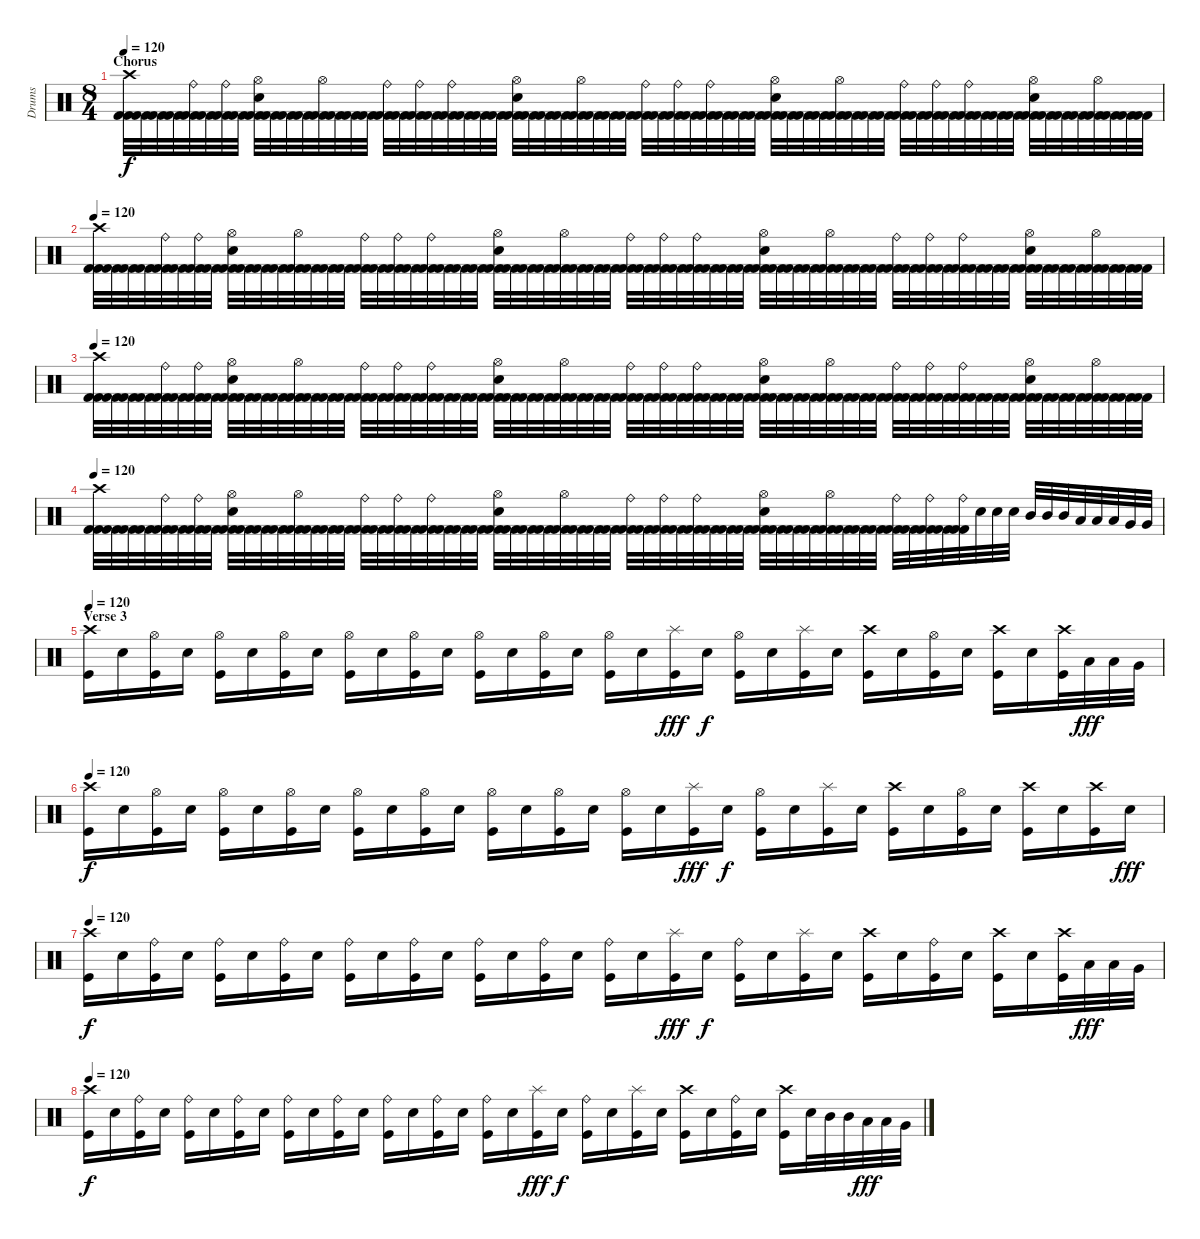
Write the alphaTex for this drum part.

\track ("Drums" "Drums") {instrument percussion}
\staff {score}
\articulation defaults
\ts (8 4)
\section ("" "Chorus ")
\tempo 120
\clef neutral
\ks c
("Crash high (hit)" "Kick (hit) 2" "Kick (hit) 2").32{dy f} ("Kick (hit) 2" "Kick (hit) 2").32 ("Kick (hit) 2" "Kick (hit) 2").32 ("Kick (hit) 2" "Kick (hit) 2").32 ("Ride (bell)" "Kick (hit) 2" "Kick (hit) 2").32 ("Kick (hit) 2" "Kick (hit) 2").32 ("Ride (bell)" "Kick (hit) 2" "Kick (hit) 2").32 ("Kick (hit) 2" "Kick (hit) 2").32 ("Hi-Hat (open)" "Electric Snare (hit)" "Kick (hit) 2" "Kick (hit) 2").32 ("Kick (hit) 2" "Kick (hit) 2").32 ("Kick (hit) 2" "Kick (hit) 2").32 ("Kick (hit) 2" "Kick (hit) 2").32 ("Hi-Hat (open)" "Kick (hit) 2" "Kick (hit) 2").32 ("Kick (hit) 2" "Kick (hit) 2").32 ("Kick (hit) 2" "Kick (hit) 2").32 ("Kick (hit) 2" "Kick (hit) 2").32 ("Ride (bell)" "Kick (hit) 2" "Kick (hit) 2").32 ("Kick (hit) 2" "Kick (hit) 2").32 ("Ride (bell)" "Kick (hit) 2" "Kick (hit) 2").32 ("Kick (hit) 2" "Kick (hit) 2").32 ("Ride (bell)" "Kick (hit) 2" "Kick (hit) 2").32 ("Kick (hit) 2" "Kick (hit) 2").32 ("Kick (hit) 2" "Kick (hit) 2").32 ("Kick (hit) 2" "Kick (hit) 2").32 ("Hi-Hat (open)" "Electric Snare (hit)" "Kick (hit) 2" "Kick (hit) 2").32 ("Kick (hit) 2" "Kick (hit) 2").32 ("Kick (hit) 2" "Kick (hit) 2").32 ("Kick (hit) 2" "Kick (hit) 2").32 ("Hi-Hat (open)" "Kick (hit) 2" "Kick (hit) 2").32 ("Kick (hit) 2" "Kick (hit) 2").32 ("Kick (hit) 2" "Kick (hit) 2").32 ("Kick (hit) 2" "Kick (hit) 2").32 ("Ride (bell)" "Kick (hit) 2" "Kick (hit) 2").32 ("Kick (hit) 2" "Kick (hit) 2").32 ("Ride (bell)" "Kick (hit) 2" "Kick (hit) 2").32 ("Kick (hit) 2" "Kick (hit) 2").32 ("Ride (bell)" "Kick (hit) 2" "Kick (hit) 2").32 ("Kick (hit) 2" "Kick (hit) 2").32 ("Kick (hit) 2" "Kick (hit) 2").32 ("Kick (hit) 2" "Kick (hit) 2").32 ("Hi-Hat (open)" "Electric Snare (hit)" "Kick (hit) 2" "Kick (hit) 2").32 ("Kick (hit) 2" "Kick (hit) 2").32 ("Kick (hit) 2" "Kick (hit) 2").32 ("Kick (hit) 2" "Kick (hit) 2").32 ("Hi-Hat (open)" "Kick (hit) 2" "Kick (hit) 2").32 ("Kick (hit) 2" "Kick (hit) 2").32 ("Kick (hit) 2" "Kick (hit) 2").32 ("Kick (hit) 2" "Kick (hit) 2").32 ("Ride (bell)" "Kick (hit) 2" "Kick (hit) 2").32 ("Kick (hit) 2" "Kick (hit) 2").32 ("Ride (bell)" "Kick (hit) 2" "Kick (hit) 2").32 ("Kick (hit) 2" "Kick (hit) 2").32 ("Ride (bell)" "Kick (hit) 2" "Kick (hit) 2").32 ("Kick (hit) 2" "Kick (hit) 2").32 ("Kick (hit) 2" "Kick (hit) 2").32 ("Kick (hit) 2" "Kick (hit) 2").32 ("Hi-Hat (open)" "Electric Snare (hit)" "Kick (hit) 2" "Kick (hit) 2").32 ("Kick (hit) 2" "Kick (hit) 2").32 ("Kick (hit) 2" "Kick (hit) 2").32 ("Kick (hit) 2" "Kick (hit) 2").32 ("Hi-Hat (open)" "Kick (hit) 2" "Kick (hit) 2").32 ("Kick (hit) 2" "Kick (hit) 2").32 ("Kick (hit) 2" "Kick (hit) 2").32 ("Kick (hit) 2" "Kick (hit) 2").32 |
\tempo 120
("Crash high (hit)" "Kick (hit) 2" "Kick (hit) 2").32 ("Kick (hit) 2" "Kick (hit) 2").32 ("Kick (hit) 2" "Kick (hit) 2").32 ("Kick (hit) 2" "Kick (hit) 2").32 ("Ride (bell)" "Kick (hit) 2" "Kick (hit) 2").32 ("Kick (hit) 2" "Kick (hit) 2").32 ("Ride (bell)" "Kick (hit) 2" "Kick (hit) 2").32 ("Kick (hit) 2" "Kick (hit) 2").32 ("Hi-Hat (open)" "Electric Snare (hit)" "Kick (hit) 2" "Kick (hit) 2").32 ("Kick (hit) 2" "Kick (hit) 2").32 ("Kick (hit) 2" "Kick (hit) 2").32 ("Kick (hit) 2" "Kick (hit) 2").32 ("Hi-Hat (open)" "Kick (hit) 2" "Kick (hit) 2").32 ("Kick (hit) 2" "Kick (hit) 2").32 ("Kick (hit) 2" "Kick (hit) 2").32 ("Kick (hit) 2" "Kick (hit) 2").32 ("Ride (bell)" "Kick (hit) 2" "Kick (hit) 2").32 ("Kick (hit) 2" "Kick (hit) 2").32 ("Ride (bell)" "Kick (hit) 2" "Kick (hit) 2").32 ("Kick (hit) 2" "Kick (hit) 2").32 ("Ride (bell)" "Kick (hit) 2" "Kick (hit) 2").32 ("Kick (hit) 2" "Kick (hit) 2").32 ("Kick (hit) 2" "Kick (hit) 2").32 ("Kick (hit) 2" "Kick (hit) 2").32 ("Hi-Hat (open)" "Electric Snare (hit)" "Kick (hit) 2" "Kick (hit) 2").32 ("Kick (hit) 2" "Kick (hit) 2").32 ("Kick (hit) 2" "Kick (hit) 2").32 ("Kick (hit) 2" "Kick (hit) 2").32 ("Hi-Hat (open)" "Kick (hit) 2" "Kick (hit) 2").32 ("Kick (hit) 2" "Kick (hit) 2").32 ("Kick (hit) 2" "Kick (hit) 2").32 ("Kick (hit) 2" "Kick (hit) 2").32 ("Ride (bell)" "Kick (hit) 2" "Kick (hit) 2").32 ("Kick (hit) 2" "Kick (hit) 2").32 ("Ride (bell)" "Kick (hit) 2" "Kick (hit) 2").32 ("Kick (hit) 2" "Kick (hit) 2").32 ("Ride (bell)" "Kick (hit) 2" "Kick (hit) 2").32 ("Kick (hit) 2" "Kick (hit) 2").32 ("Kick (hit) 2" "Kick (hit) 2").32 ("Kick (hit) 2" "Kick (hit) 2").32 ("Hi-Hat (open)" "Electric Snare (hit)" "Kick (hit) 2" "Kick (hit) 2").32 ("Kick (hit) 2" "Kick (hit) 2").32 ("Kick (hit) 2" "Kick (hit) 2").32 ("Kick (hit) 2" "Kick (hit) 2").32 ("Hi-Hat (open)" "Kick (hit) 2" "Kick (hit) 2").32 ("Kick (hit) 2" "Kick (hit) 2").32 ("Kick (hit) 2" "Kick (hit) 2").32 ("Kick (hit) 2" "Kick (hit) 2").32 ("Ride (bell)" "Kick (hit) 2" "Kick (hit) 2").32 ("Kick (hit) 2" "Kick (hit) 2").32 ("Ride (bell)" "Kick (hit) 2" "Kick (hit) 2").32 ("Kick (hit) 2" "Kick (hit) 2").32 ("Ride (bell)" "Kick (hit) 2" "Kick (hit) 2").32 ("Kick (hit) 2" "Kick (hit) 2").32 ("Kick (hit) 2" "Kick (hit) 2").32 ("Kick (hit) 2" "Kick (hit) 2").32 ("Hi-Hat (open)" "Electric Snare (hit)" "Kick (hit) 2" "Kick (hit) 2").32 ("Kick (hit) 2" "Kick (hit) 2").32 ("Kick (hit) 2" "Kick (hit) 2").32 ("Kick (hit) 2" "Kick (hit) 2").32 ("Hi-Hat (open)" "Kick (hit) 2" "Kick (hit) 2").32 ("Kick (hit) 2" "Kick (hit) 2").32 ("Kick (hit) 2" "Kick (hit) 2").32 ("Kick (hit) 2" "Kick (hit) 2").32 |
\tempo 120
("Crash high (hit)" "Kick (hit) 2" "Kick (hit) 2").32 ("Kick (hit) 2" "Kick (hit) 2").32 ("Kick (hit) 2" "Kick (hit) 2").32 ("Kick (hit) 2" "Kick (hit) 2").32 ("Ride (bell)" "Kick (hit) 2" "Kick (hit) 2").32 ("Kick (hit) 2" "Kick (hit) 2").32 ("Ride (bell)" "Kick (hit) 2" "Kick (hit) 2").32 ("Kick (hit) 2" "Kick (hit) 2").32 ("Hi-Hat (open)" "Electric Snare (hit)" "Kick (hit) 2" "Kick (hit) 2").32 ("Kick (hit) 2" "Kick (hit) 2").32 ("Kick (hit) 2" "Kick (hit) 2").32 ("Kick (hit) 2" "Kick (hit) 2").32 ("Hi-Hat (open)" "Kick (hit) 2" "Kick (hit) 2").32 ("Kick (hit) 2" "Kick (hit) 2").32 ("Kick (hit) 2" "Kick (hit) 2").32 ("Kick (hit) 2" "Kick (hit) 2").32 ("Ride (bell)" "Kick (hit) 2" "Kick (hit) 2").32 ("Kick (hit) 2" "Kick (hit) 2").32 ("Ride (bell)" "Kick (hit) 2" "Kick (hit) 2").32 ("Kick (hit) 2" "Kick (hit) 2").32 ("Ride (bell)" "Kick (hit) 2" "Kick (hit) 2").32 ("Kick (hit) 2" "Kick (hit) 2").32 ("Kick (hit) 2" "Kick (hit) 2").32 ("Kick (hit) 2" "Kick (hit) 2").32 ("Hi-Hat (open)" "Electric Snare (hit)" "Kick (hit) 2" "Kick (hit) 2").32 ("Kick (hit) 2" "Kick (hit) 2").32 ("Kick (hit) 2" "Kick (hit) 2").32 ("Kick (hit) 2" "Kick (hit) 2").32 ("Hi-Hat (open)" "Kick (hit) 2" "Kick (hit) 2").32 ("Kick (hit) 2" "Kick (hit) 2").32 ("Kick (hit) 2" "Kick (hit) 2").32 ("Kick (hit) 2" "Kick (hit) 2").32 ("Ride (bell)" "Kick (hit) 2" "Kick (hit) 2").32 ("Kick (hit) 2" "Kick (hit) 2").32 ("Ride (bell)" "Kick (hit) 2" "Kick (hit) 2").32 ("Kick (hit) 2" "Kick (hit) 2").32 ("Ride (bell)" "Kick (hit) 2" "Kick (hit) 2").32 ("Kick (hit) 2" "Kick (hit) 2").32 ("Kick (hit) 2" "Kick (hit) 2").32 ("Kick (hit) 2" "Kick (hit) 2").32 ("Hi-Hat (open)" "Electric Snare (hit)" "Kick (hit) 2" "Kick (hit) 2").32 ("Kick (hit) 2" "Kick (hit) 2").32 ("Kick (hit) 2" "Kick (hit) 2").32 ("Kick (hit) 2" "Kick (hit) 2").32 ("Hi-Hat (open)" "Kick (hit) 2" "Kick (hit) 2").32 ("Kick (hit) 2" "Kick (hit) 2").32 ("Kick (hit) 2" "Kick (hit) 2").32 ("Kick (hit) 2" "Kick (hit) 2").32 ("Ride (bell)" "Kick (hit) 2" "Kick (hit) 2").32 ("Kick (hit) 2" "Kick (hit) 2").32 ("Ride (bell)" "Kick (hit) 2" "Kick (hit) 2").32 ("Kick (hit) 2" "Kick (hit) 2").32 ("Ride (bell)" "Kick (hit) 2" "Kick (hit) 2").32 ("Kick (hit) 2" "Kick (hit) 2").32 ("Kick (hit) 2" "Kick (hit) 2").32 ("Kick (hit) 2" "Kick (hit) 2").32 ("Hi-Hat (open)" "Electric Snare (hit)" "Kick (hit) 2" "Kick (hit) 2").32 ("Kick (hit) 2" "Kick (hit) 2").32 ("Kick (hit) 2" "Kick (hit) 2").32 ("Kick (hit) 2" "Kick (hit) 2").32 ("Hi-Hat (open)" "Kick (hit) 2" "Kick (hit) 2").32 ("Kick (hit) 2" "Kick (hit) 2").32 ("Kick (hit) 2" "Kick (hit) 2").32 ("Kick (hit) 2" "Kick (hit) 2").32 |
\tempo 120
("Crash high (hit)" "Kick (hit) 2" "Kick (hit) 2").32 ("Kick (hit) 2" "Kick (hit) 2").32 ("Kick (hit) 2" "Kick (hit) 2").32 ("Kick (hit) 2" "Kick (hit) 2").32 ("Ride (bell)" "Kick (hit) 2" "Kick (hit) 2").32 ("Kick (hit) 2" "Kick (hit) 2").32 ("Ride (bell)" "Kick (hit) 2" "Kick (hit) 2").32 ("Kick (hit) 2" "Kick (hit) 2").32 ("Hi-Hat (open)" "Electric Snare (hit)" "Kick (hit) 2" "Kick (hit) 2").32 ("Kick (hit) 2" "Kick (hit) 2").32 ("Kick (hit) 2" "Kick (hit) 2").32 ("Kick (hit) 2" "Kick (hit) 2").32 ("Hi-Hat (open)" "Kick (hit) 2" "Kick (hit) 2").32 ("Kick (hit) 2" "Kick (hit) 2").32 ("Kick (hit) 2" "Kick (hit) 2").32 ("Kick (hit) 2" "Kick (hit) 2").32 ("Ride (bell)" "Kick (hit) 2" "Kick (hit) 2").32 ("Kick (hit) 2" "Kick (hit) 2").32 ("Ride (bell)" "Kick (hit) 2" "Kick (hit) 2").32 ("Kick (hit) 2" "Kick (hit) 2").32 ("Ride (bell)" "Kick (hit) 2" "Kick (hit) 2").32 ("Kick (hit) 2" "Kick (hit) 2").32 ("Kick (hit) 2" "Kick (hit) 2").32 ("Kick (hit) 2" "Kick (hit) 2").32 ("Hi-Hat (open)" "Electric Snare (hit)" "Kick (hit) 2" "Kick (hit) 2").32 ("Kick (hit) 2" "Kick (hit) 2").32 ("Kick (hit) 2" "Kick (hit) 2").32 ("Kick (hit) 2" "Kick (hit) 2").32 ("Hi-Hat (open)" "Kick (hit) 2" "Kick (hit) 2").32 ("Kick (hit) 2" "Kick (hit) 2").32 ("Kick (hit) 2" "Kick (hit) 2").32 ("Kick (hit) 2" "Kick (hit) 2").32 ("Ride (bell)" "Kick (hit) 2" "Kick (hit) 2").32 ("Kick (hit) 2" "Kick (hit) 2").32 ("Ride (bell)" "Kick (hit) 2" "Kick (hit) 2").32 ("Kick (hit) 2" "Kick (hit) 2").32 ("Ride (bell)" "Kick (hit) 2" "Kick (hit) 2").32 ("Kick (hit) 2" "Kick (hit) 2").32 ("Kick (hit) 2" "Kick (hit) 2").32 ("Kick (hit) 2" "Kick (hit) 2").32 ("Hi-Hat (open)" "Electric Snare (hit)" "Kick (hit) 2" "Kick (hit) 2").32 ("Kick (hit) 2" "Kick (hit) 2").32 ("Kick (hit) 2" "Kick (hit) 2").32 ("Kick (hit) 2" "Kick (hit) 2").32 ("Hi-Hat (open)" "Kick (hit) 2" "Kick (hit) 2").32 ("Kick (hit) 2" "Kick (hit) 2").32 ("Kick (hit) 2" "Kick (hit) 2").32 ("Kick (hit) 2" "Kick (hit) 2").32 ("Ride (bell)" "Kick (hit) 2" "Kick (hit) 2").32 ("Kick (hit) 2" "Kick (hit) 2").32 ("Ride (bell)" "Kick (hit) 2" "Kick (hit) 2").32 ("Kick (hit) 2" "Kick (hit) 2").32 ("Ride (bell)" "Kick (hit) 2" "Kick (hit) 2").32 "Electric Snare (hit)".32 "Electric Snare (hit)".32 "Electric Snare (hit)".32 "Mid Tom (hit)".32 "Mid Tom (hit)".32 "Mid Tom (hit)".32 "Low Tom (hit)".32 "Low Tom (hit)".32 "Low Tom (hit)".32 "Very Low Tom (hit)".32 "Very Low Tom (hit)".32 |
\section ("" "Verse 3")
\tempo 120
("Crash high (hit)" "Kick (hit)").16 "Electric Snare (hit)".16 ("Hi-Hat (open)" "Kick (hit)").16 "Electric Snare (hit)".16 ("Hi-Hat (open)" "Kick (hit)").16 "Electric Snare (hit)".16 ("Hi-Hat (open)" "Kick (hit)").16 "Electric Snare (hit)".16 ("Hi-Hat (open)" "Kick (hit)").16 "Electric Snare (hit)".16 ("Hi-Hat (open)" "Kick (hit)").16 "Electric Snare (hit)".16 ("Hi-Hat (open)" "Kick (hit)").16 "Electric Snare (hit)".16 ("Hi-Hat (open)" "Kick (hit)").16 "Electric Snare (hit)".16 ("Hi-Hat (open)" "Kick (hit)").16 "Electric Snare (hit)".16 ("Splash (hit)" "Kick (hit)").16{dy fff} "Electric Snare (hit)".16{dy f} ("Hi-Hat (open)" "Kick (hit)").16 "Electric Snare (hit)".16 ("Splash (hit)" "Kick (hit)").16 "Electric Snare (hit)".16 ("Crash high (hit)" "Kick (hit)").16 "Electric Snare (hit)".16 ("Hi-Hat (open)" "Kick (hit)").16 "Electric Snare (hit)".16 ("Crash high (hit)" "Kick (hit)").16 "Electric Snare (hit)".16 ("Crash high (hit)" "Kick (hit)").32 "Low Tom (hit)".32{dy fff} "Low Tom (hit)".32 "Very Low Tom (hit)".32 |
\tempo 120
("Crash high (hit)" "Kick (hit)").16{dy f} "Electric Snare (hit)".16 ("Hi-Hat (open)" "Kick (hit)").16 "Electric Snare (hit)".16 ("Hi-Hat (open)" "Kick (hit)").16 "Electric Snare (hit)".16 ("Hi-Hat (open)" "Kick (hit)").16 "Electric Snare (hit)".16 ("Hi-Hat (open)" "Kick (hit)").16 "Electric Snare (hit)".16 ("Hi-Hat (open)" "Kick (hit)").16 "Electric Snare (hit)".16 ("Hi-Hat (open)" "Kick (hit)").16 "Electric Snare (hit)".16 ("Hi-Hat (open)" "Kick (hit)").16 "Electric Snare (hit)".16 ("Hi-Hat (open)" "Kick (hit)").16 "Electric Snare (hit)".16 ("Splash (hit)" "Kick (hit)").16{dy fff} "Electric Snare (hit)".16{dy f} ("Hi-Hat (open)" "Kick (hit)").16 "Electric Snare (hit)".16 ("Splash (hit)" "Kick (hit)").16 "Electric Snare (hit)".16 ("Crash high (hit)" "Kick (hit)").16 "Electric Snare (hit)".16 ("Hi-Hat (open)" "Kick (hit)").16 "Electric Snare (hit)".16 ("Crash high (hit)" "Kick (hit)").16 "Electric Snare (hit)".16 ("Crash high (hit)" "Kick (hit)").16 "Electric Snare (hit)".16{dy fff} |
\tempo 120
("Crash high (hit)" "Kick (hit)").16{dy f} "Electric Snare (hit)".16 ("Ride (bell)" "Kick (hit)").16 "Electric Snare (hit)".16 ("Ride (bell)" "Kick (hit)").16 "Electric Snare (hit)".16 ("Ride (bell)" "Kick (hit)").16 "Electric Snare (hit)".16 ("Ride (bell)" "Kick (hit)").16 "Electric Snare (hit)".16 ("Ride (bell)" "Kick (hit)").16 "Electric Snare (hit)".16 ("Ride (bell)" "Kick (hit)").16 "Electric Snare (hit)".16 ("Ride (bell)" "Kick (hit)").16 "Electric Snare (hit)".16 ("Ride (bell)" "Kick (hit)").16 "Electric Snare (hit)".16 ("Splash (hit)" "Kick (hit)").16{dy fff} "Electric Snare (hit)".16{dy f} ("Ride (bell)" "Kick (hit)").16 "Electric Snare (hit)".16 ("Splash (hit)" "Kick (hit)").16 "Electric Snare (hit)".16 ("Crash high (hit)" "Kick (hit)").16 "Electric Snare (hit)".16 ("Ride (bell)" "Kick (hit)").16 "Electric Snare (hit)".16 ("Crash high (hit)" "Kick (hit)").16 "Electric Snare (hit)".16 ("Crash high (hit)" "Kick (hit)").32 "Low Tom (hit)".32{dy fff} "Low Tom (hit)".32 "Very Low Tom (hit)".32 |
\tempo 120
("Crash high (hit)" "Kick (hit)").16{dy f} "Electric Snare (hit)".16 ("Ride (bell)" "Kick (hit)").16 "Electric Snare (hit)".16 ("Ride (bell)" "Kick (hit)").16 "Electric Snare (hit)".16 ("Ride (bell)" "Kick (hit)").16 "Electric Snare (hit)".16 ("Ride (bell)" "Kick (hit)").16 "Electric Snare (hit)".16 ("Ride (bell)" "Kick (hit)").16 "Electric Snare (hit)".16 ("Ride (bell)" "Kick (hit)").16 "Electric Snare (hit)".16 ("Ride (bell)" "Kick (hit)").16 "Electric Snare (hit)".16 ("Ride (bell)" "Kick (hit)").16 "Electric Snare (hit)".16 ("Splash (hit)" "Kick (hit)").16{dy fff} "Electric Snare (hit)".16{dy f} ("Ride (bell)" "Kick (hit)").16 "Electric Snare (hit)".16 ("Splash (hit)" "Kick (hit)").16 "Electric Snare (hit)".16 ("Crash high (hit)" "Kick (hit)").16 "Electric Snare (hit)".16 ("Ride (bell)" "Kick (hit)").16 "Electric Snare (hit)".16 ("Crash high (hit)" "Kick (hit)").16 "Electric Snare (hit)".32 "Mid Tom (hit)".32 "Mid Tom (hit)".32 "Low Tom (hit)".32{dy fff} "Low Tom (hit)".32 "Very Low Tom (hit)".32
